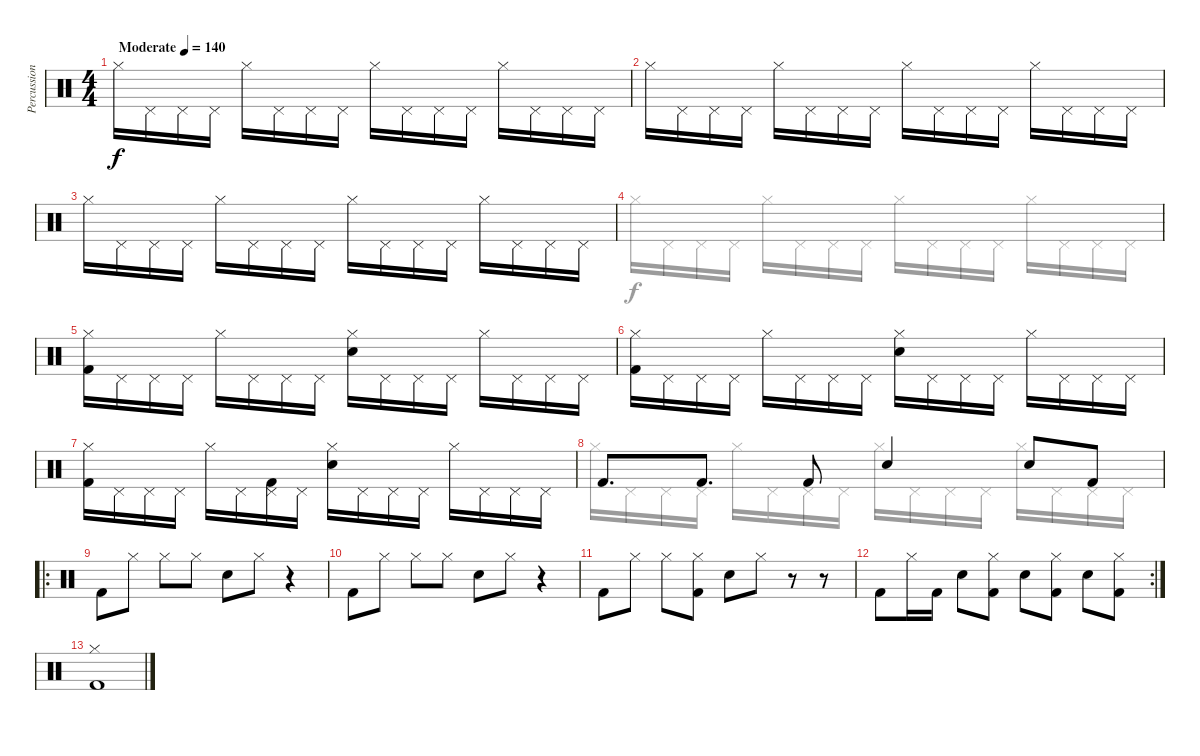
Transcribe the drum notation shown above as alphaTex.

\track ("Percussion" "Percussion") {instrument percussion}
\staff {score}
\articulation defaults
\voice
\ts (4 4)
\tempo (140 "Moderate")
\clef neutral
\ks c "Hi-Hat (closed)".16{dy f} "Pedal Hi-Hat (hit)".16 "Pedal Hi-Hat (hit)".16 "Pedal Hi-Hat (hit)".16 "Hi-Hat (closed)".16 "Pedal Hi-Hat (hit)".16 "Pedal Hi-Hat (hit)".16 "Pedal Hi-Hat (hit)".16 "Hi-Hat (closed)".16 "Pedal Hi-Hat (hit)".16 "Pedal Hi-Hat (hit)".16 "Pedal Hi-Hat (hit)".16 "Hi-Hat (closed)".16 "Pedal Hi-Hat (hit)".16 "Pedal Hi-Hat (hit)".16 "Pedal Hi-Hat (hit)".16
|
"Hi-Hat (closed)".16 "Pedal Hi-Hat (hit)".16 "Pedal Hi-Hat (hit)".16 "Pedal Hi-Hat (hit)".16 "Hi-Hat (closed)".16 "Pedal Hi-Hat (hit)".16 "Pedal Hi-Hat (hit)".16 "Pedal Hi-Hat (hit)".16 "Hi-Hat (closed)".16 "Pedal Hi-Hat (hit)".16 "Pedal Hi-Hat (hit)".16 "Pedal Hi-Hat (hit)".16 "Hi-Hat (closed)".16 "Pedal Hi-Hat (hit)".16 "Pedal Hi-Hat (hit)".16 "Pedal Hi-Hat (hit)".16 |
"Hi-Hat (closed)".16 "Pedal Hi-Hat (hit)".16 "Pedal Hi-Hat (hit)".16 "Pedal Hi-Hat (hit)".16 "Hi-Hat (closed)".16 "Pedal Hi-Hat (hit)".16 "Pedal Hi-Hat (hit)".16 "Pedal Hi-Hat (hit)".16 "Hi-Hat (closed)".16 "Pedal Hi-Hat (hit)".16 "Pedal Hi-Hat (hit)".16 "Pedal Hi-Hat (hit)".16 "Hi-Hat (closed)".16 "Pedal Hi-Hat (hit)".16 "Pedal Hi-Hat (hit)".16 "Pedal Hi-Hat (hit)".16 |
|
("Hi-Hat (closed)" "Kick (hit) 2").16 "Pedal Hi-Hat (hit)".16 "Pedal Hi-Hat (hit)".16 "Pedal Hi-Hat (hit)".16 "Hi-Hat (closed)".16 "Pedal Hi-Hat (hit)".16 "Pedal Hi-Hat (hit)".16 "Pedal Hi-Hat (hit)".16 ("Hi-Hat (closed)" "Snare (hit) 2").16 "Pedal Hi-Hat (hit)".16 "Pedal Hi-Hat (hit)".16 "Pedal Hi-Hat (hit)".16 "Hi-Hat (closed)".16 "Pedal Hi-Hat (hit)".16 "Pedal Hi-Hat (hit)".16 "Pedal Hi-Hat (hit)".16 |
("Hi-Hat (closed)" "Kick (hit) 2").16 "Pedal Hi-Hat (hit)".16 "Pedal Hi-Hat (hit)".16 "Pedal Hi-Hat (hit)".16 "Hi-Hat (closed)".16 "Pedal Hi-Hat (hit)".16 "Pedal Hi-Hat (hit)".16 "Pedal Hi-Hat (hit)".16 ("Hi-Hat (closed)" "Snare (hit) 2").16 "Pedal Hi-Hat (hit)".16 "Pedal Hi-Hat (hit)".16 "Pedal Hi-Hat (hit)".16 "Hi-Hat (closed)".16 "Pedal Hi-Hat (hit)".16 "Pedal Hi-Hat (hit)".16 "Pedal Hi-Hat (hit)".16 |
("Hi-Hat (closed)" "Kick (hit) 2").16 "Pedal Hi-Hat (hit)".16 "Pedal Hi-Hat (hit)".16 "Pedal Hi-Hat (hit)".16 "Hi-Hat (closed)".16 "Pedal Hi-Hat (hit)".16 ("Pedal Hi-Hat (hit)" "Kick (hit) 2").16 "Pedal Hi-Hat (hit)".16 ("Hi-Hat (closed)" "Snare (hit) 2").16 "Pedal Hi-Hat (hit)".16 "Pedal Hi-Hat (hit)".16 "Pedal Hi-Hat (hit)".16 "Hi-Hat (closed)".16 "Pedal Hi-Hat (hit)".16 "Pedal Hi-Hat (hit)".16 "Pedal Hi-Hat (hit)".16 |
"Kick (hit) 2".8{d} "Kick (hit) 2".8{d} "Kick (hit) 2".8 "Snare (hit) 2".4 "Snare (hit) 2".8 "Kick (hit) 2".8 |
\ro "Kick (hit) 2".8 "Hi-Hat (closed)".8 "Hi-Hat (closed)".8 "Hi-Hat (closed)".8 "Snare (hit) 2".8 "Hi-Hat (closed)".8
r.4 |
"Kick (hit) 2".8 "Hi-Hat (closed)".8 "Hi-Hat (closed)".8 "Hi-Hat (closed)".8 "Snare (hit) 2".8 "Hi-Hat (closed)".8 r.4 |
"Kick (hit) 2".8 "Hi-Hat (closed)".8 "Hi-Hat (closed)".8 ("Hi-Hat (closed)" "Kick (hit) 2").8 "Snare (hit) 2".8 "Hi-Hat (closed)".8 r.8 r.8 |
\rc 2 "Kick (hit) 2".8 "Hi-Hat (closed)".16 "Kick (hit) 2".16 "Snare (hit) 2".8
("Hi-Hat (closed)" "Kick (hit) 2").8 "Snare (hit) 2".8 ("Hi-Hat (closed)" "Kick (hit) 2").8 "Snare (hit) 2".8 ("Hi-Hat (closed)" "Kick (hit) 2").8 |
("Hi-Hat (closed)" "Kick (hit) 2").1 |
|
|
\voice
\clef neutral
\ottava regular
\simile none
\ks c
|
|
|
"Hi-Hat (closed)".16 "Pedal Hi-Hat (hit)".16 "Pedal Hi-Hat (hit)".16 "Pedal Hi-Hat (hit)".16 "Hi-Hat (closed)".16 "Pedal Hi-Hat (hit)".16 "Pedal Hi-Hat (hit)".16 "Pedal Hi-Hat (hit)".16 "Hi-Hat (closed)".16 "Pedal Hi-Hat (hit)".16 "Pedal Hi-Hat (hit)".16 "Pedal Hi-Hat (hit)".16 "Hi-Hat (closed)".16 "Pedal Hi-Hat (hit)".16 "Pedal Hi-Hat (hit)".16 "Pedal Hi-Hat (hit)".16 |
|
|
|
"Hi-Hat (closed)".16 "Pedal Hi-Hat (hit)".16 "Pedal Hi-Hat (hit)".16 "Pedal Hi-Hat (hit)".16 "Hi-Hat (closed)".16 "Pedal Hi-Hat (hit)".16 "Pedal Hi-Hat (hit)".16 "Pedal Hi-Hat (hit)".16 "Hi-Hat (closed)".16 "Pedal Hi-Hat (hit)".16 "Pedal Hi-Hat (hit)".16 "Pedal Hi-Hat (hit)".16 "Hi-Hat (closed)".16 "Pedal Hi-Hat (hit)".16 "Pedal Hi-Hat (hit)".16 "Pedal Hi-Hat (hit)".16 |
|
|
|
|
|
|
|
